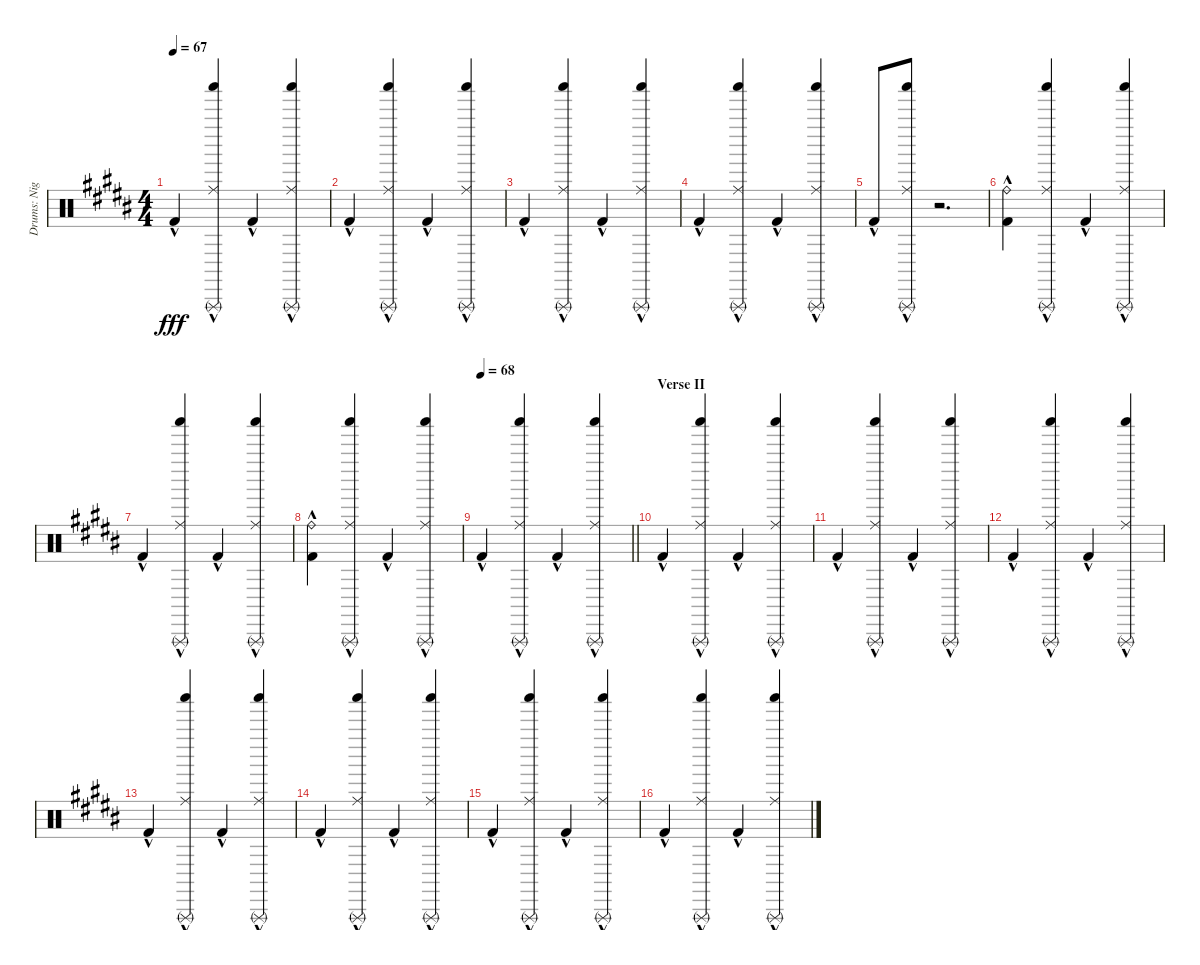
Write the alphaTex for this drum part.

\track ("Drums: Nigel" "Drums: Nig") {instrument percussion}
\staff {score}
\articulation defaults
\ts (4 4)
\tempo 67
\clef neutral
\ks b "Kick (hit) 2"{hac}.4{dy fff}
("Ride (middle)"{hac} "Shaker (hit)"{hac} "Triangle (rnute)"{hac}).4 "Kick (hit) 2"{hac}.4 ("Ride (middle)"{hac} "Shaker (hit)"{hac} "Triangle (rnute)"{hac}).4 |
"Kick (hit) 2"{hac}.4 ("Ride (middle)"{hac} "Shaker (hit)"{hac} "Triangle (rnute)"{hac}).4 "Kick (hit) 2"{hac}.4 ("Ride (middle)"{hac} "Shaker (hit)"{hac} "Triangle (rnute)"{hac}).4 |
"Kick (hit) 2"{hac}.4 ("Ride (middle)"{hac} "Shaker (hit)"{hac} "Triangle (rnute)"{hac}).4 "Kick (hit) 2"{hac}.4 ("Ride (middle)"{hac} "Shaker (hit)"{hac} "Triangle (rnute)"{hac}).4 |
"Kick (hit) 2"{hac}.4 ("Ride (middle)"{hac} "Shaker (hit)"{hac} "Triangle (rnute)"{hac}).4 "Kick (hit) 2"{hac}.4 ("Ride (middle)"{hac} "Shaker (hit)"{hac} "Triangle (rnute)"{hac}).4 |
"Kick (hit) 2"{hac}.8 ("Ride (middle)"{hac} "Shaker (hit)"{hac} "Triangle (rnute)"{hac}).8 r.2{d} |
("Ride (bell)"{hac} "Kick (hit) 2"{hac}).4 ("Ride (middle)"{hac} "Shaker (hit)"{hac} "Triangle (rnute)"{hac}).4 "Kick (hit) 2"{hac}.4 ("Ride (middle)"{hac} "Shaker (hit)"{hac} "Triangle (rnute)"{hac}).4 |
"Kick (hit) 2"{hac}.4 ("Ride (middle)"{hac} "Shaker (hit)"{hac} "Triangle (rnute)"{hac}).4 "Kick (hit) 2"{hac}.4 ("Ride (middle)"{hac} "Shaker (hit)"{hac} "Triangle (rnute)"{hac}).4 |
("Ride (bell)"{hac} "Kick (hit) 2"{hac}).4 ("Ride (middle)"{hac} "Shaker (hit)"{hac} "Triangle (rnute)"{hac}).4 "Kick (hit) 2"{hac}.4 ("Ride (middle)"{hac} "Shaker (hit)"{hac} "Triangle (rnute)"{hac}).4 |
\tempo 68
\barLineRight lightlight "Kick (hit) 2"{hac}.4
("Ride (middle)"{hac} "Shaker (hit)"{hac} "Triangle (rnute)"{hac}).4 "Kick (hit) 2"{hac}.4 ("Ride (middle)"{hac} "Shaker (hit)"{hac} "Triangle (rnute)"{hac}).4 |
\section ("" "Verse II")
"Kick (hit) 2"{hac}.4 ("Ride (middle)"{hac} "Shaker (hit)"{hac} "Triangle (rnute)"{hac}).4 "Kick (hit) 2"{hac}.4 ("Ride (middle)"{hac} "Shaker (hit)"{hac} "Triangle (rnute)"{hac}).4 |
"Kick (hit) 2"{hac}.4 ("Ride (middle)"{hac} "Shaker (hit)"{hac} "Triangle (rnute)"{hac}).4 "Kick (hit) 2"{hac}.4 ("Ride (middle)"{hac} "Shaker (hit)"{hac} "Triangle (rnute)"{hac}).4 |
"Kick (hit) 2"{hac}.4 ("Ride (middle)"{hac} "Shaker (hit)"{hac} "Triangle (rnute)"{hac}).4 "Kick (hit) 2"{hac}.4 ("Ride (middle)"{hac} "Shaker (hit)"{hac} "Triangle (rnute)"{hac}).4 |
"Kick (hit) 2"{hac}.4 ("Ride (middle)"{hac} "Shaker (hit)"{hac} "Triangle (rnute)"{hac}).4 "Kick (hit) 2"{hac}.4 ("Ride (middle)"{hac} "Shaker (hit)"{hac} "Triangle (rnute)"{hac}).4 |
"Kick (hit) 2"{hac}.4 ("Ride (middle)"{hac} "Shaker (hit)"{hac} "Triangle (rnute)"{hac}).4 "Kick (hit) 2"{hac}.4 ("Ride (middle)"{hac} "Shaker (hit)"{hac} "Triangle (rnute)"{hac}).4 |
"Kick (hit) 2"{hac}.4 ("Ride (middle)"{hac} "Shaker (hit)"{hac} "Triangle (rnute)"{hac}).4 "Kick (hit) 2"{hac}.4 ("Ride (middle)"{hac} "Shaker (hit)"{hac} "Triangle (rnute)"{hac}).4 |
"Kick (hit) 2"{hac}.4 ("Ride (middle)"{hac} "Shaker (hit)"{hac} "Triangle (rnute)"{hac}).4 "Kick (hit) 2"{hac}.4 ("Ride (middle)"{hac} "Shaker (hit)"{hac} "Triangle (rnute)"{hac}).4
